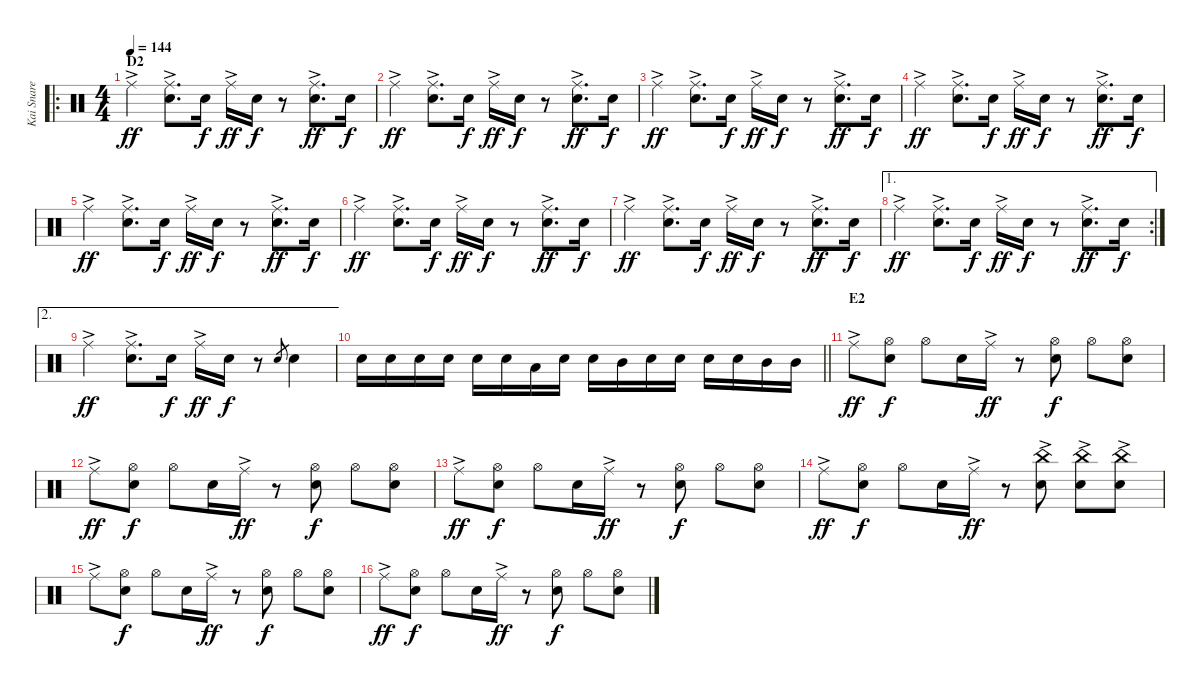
\track ("Kai Snare" "Kai Snare") {instrument percussion}
\staff {score}
\articulation defaults
\ro
\ts (4 4)
\section ("" "D2")
\tempo 144
\clef neutral
\ks c "Ride (middle)"{ac}.4{dy ff}
("Ride (middle)"{ac} "Snare (hit) 2").8{d} "Snare (hit) 2".16{dy f} "Ride (middle)"{ac}.16{dy ff} "Snare (hit) 2".16{dy f} r.8 ("Ride (middle)"{ac} "Snare (hit) 2").8{d dy ff} "Snare (hit) 2".16{dy f} |
"Ride (middle)"{ac}.4{dy ff} ("Ride (middle)"{ac} "Snare (hit) 2").8{d} "Snare (hit) 2".16{dy f} "Ride (middle)"{ac}.16{dy ff} "Snare (hit) 2".16{dy f} r.8 ("Ride (middle)"{ac} "Snare (hit) 2").8{d dy ff} "Snare (hit) 2".16{dy f} |
"Ride (middle)"{ac}.4{dy ff} ("Ride (middle)"{ac} "Snare (hit) 2").8{d} "Snare (hit) 2".16{dy f} "Ride (middle)"{ac}.16{dy ff} "Snare (hit) 2".16{dy f} r.8 ("Ride (middle)"{ac} "Snare (hit) 2").8{d dy ff} "Snare (hit) 2".16{dy f} |
"Ride (middle)"{ac}.4{dy ff} ("Ride (middle)"{ac} "Snare (hit) 2").8{d} "Snare (hit) 2".16{dy f} "Ride (middle)"{ac}.16{dy ff} "Snare (hit) 2".16{dy f} r.8 ("Ride (middle)"{ac} "Snare (hit) 2").8{d dy ff} "Snare (hit) 2".16{dy f} |
"Ride (middle)"{ac}.4{dy ff} ("Ride (middle)"{ac} "Snare (hit) 2").8{d} "Snare (hit) 2".16{dy f} "Ride (middle)"{ac}.16{dy ff} "Snare (hit) 2".16{dy f} r.8 ("Ride (middle)"{ac} "Snare (hit) 2").8{d dy ff} "Snare (hit) 2".16{dy f} |
"Ride (middle)"{ac}.4{dy ff} ("Ride (middle)"{ac} "Snare (hit) 2").8{d} "Snare (hit) 2".16{dy f} "Ride (middle)"{ac}.16{dy ff} "Snare (hit) 2".16{dy f} r.8 ("Ride (middle)"{ac} "Snare (hit) 2").8{d dy ff} "Snare (hit) 2".16{dy f} |
"Ride (middle)"{ac}.4{dy ff} ("Ride (middle)"{ac} "Snare (hit) 2").8{d} "Snare (hit) 2".16{dy f} "Ride (middle)"{ac}.16{dy ff} "Snare (hit) 2".16{dy f} r.8 ("Ride (middle)"{ac} "Snare (hit) 2").8{d dy ff} "Snare (hit) 2".16{dy f} |
\ae 1
\rc 2 "Ride (middle)"{ac}.4{dy ff}
("Ride (middle)"{ac} "Snare (hit) 2").8{d} "Snare (hit) 2".16{dy f} "Ride (middle)"{ac}.16{dy ff} "Snare (hit) 2".16{dy f} r.8 ("Ride (middle)"{ac} "Snare (hit) 2").8{d dy ff} "Snare (hit) 2".16{dy f} |
\ae 2 "Ride (middle)"{ac}.4{dy ff}
("Ride (middle)"{ac} "Snare (hit) 2").8{d} "Snare (hit) 2".16{dy f} "Ride (middle)"{ac}.16{dy ff} "Snare (hit) 2".16{dy f} r.8 "Snare (hit) 2".8{gr} "Snare (hit) 2".4 |
\barLineRight lightlight "Snare (hit) 2".16 "Snare (hit) 2".16 "Snare (hit) 2".16 "Snare (hit) 2".16 "Snare (hit) 2".16 "Snare (hit) 2".16 "Low Tom (hit)".16 "Snare (hit) 2".16 "Snare (hit) 2".16 "Mid Tom (hit)".16 "Snare (hit) 2".16 "Snare (hit) 2".16 "Snare (hit) 2".16 "Snare (hit) 2".16 "Mid Tom (hit)".16 "Mid Tom (hit)".16
|
\section ("" "E2")
"Ride (middle)"{ac}.8{dy ff} ("Hi-Hat (open)" "Snare (hit) 2").8{dy f} "Hi-Hat (open)".8 "Snare (hit) 2".16 "Ride (middle)"{ac}.16{dy ff} r.8 ("Hi-Hat (open)" "Snare (hit) 2").8{dy f} "Hi-Hat (open)".8 ("Hi-Hat (open)" "Snare (hit) 2").8 |
"Ride (middle)"{ac}.8{dy ff} ("Hi-Hat (open)" "Snare (hit) 2").8{dy f} "Hi-Hat (open)".8 "Snare (hit) 2".16 "Ride (middle)"{ac}.16{dy ff} r.8 ("Hi-Hat (open)" "Snare (hit) 2").8{dy f} "Hi-Hat (open)".8 ("Hi-Hat (open)" "Snare (hit) 2").8 |
"Ride (middle)"{ac}.8{dy ff} ("Hi-Hat (open)" "Snare (hit) 2").8{dy f} "Hi-Hat (open)".8 "Snare (hit) 2".16 "Ride (middle)"{ac}.16{dy ff} r.8 ("Hi-Hat (open)" "Snare (hit) 2").8{dy f} "Hi-Hat (open)".8 ("Hi-Hat (open)" "Snare (hit) 2").8 |
"Ride (middle)"{ac}.8{dy ff} ("Hi-Hat (open)" "Snare (hit) 2").8{dy f} "Hi-Hat (open)".8 "Snare (hit) 2".16 "Ride (middle)"{ac}.16{dy ff} r.8 ("China (hit)"{ac} "Snare (hit) 2").8 ("China (hit)"{ac} "Snare (hit) 2").8 ("China (hit)"{ac} "Snare (hit) 2").8 |
"Ride (middle)"{ac}.8 ("Hi-Hat (open)" "Snare (hit) 2").8{dy f} "Hi-Hat (open)".8 "Snare (hit) 2".16 "Ride (middle)"{ac}.16{dy ff} r.8 ("Hi-Hat (open)" "Snare (hit) 2").8{dy f} "Hi-Hat (open)".8 ("Hi-Hat (open)" "Snare (hit) 2").8 |
"Ride (middle)"{ac}.8{dy ff} ("Hi-Hat (open)" "Snare (hit) 2").8{dy f} "Hi-Hat (open)".8 "Snare (hit) 2".16 "Ride (middle)"{ac}.16{dy ff} r.8 ("Hi-Hat (open)" "Snare (hit) 2").8{dy f} "Hi-Hat (open)".8 ("Hi-Hat (open)" "Snare (hit) 2").8
